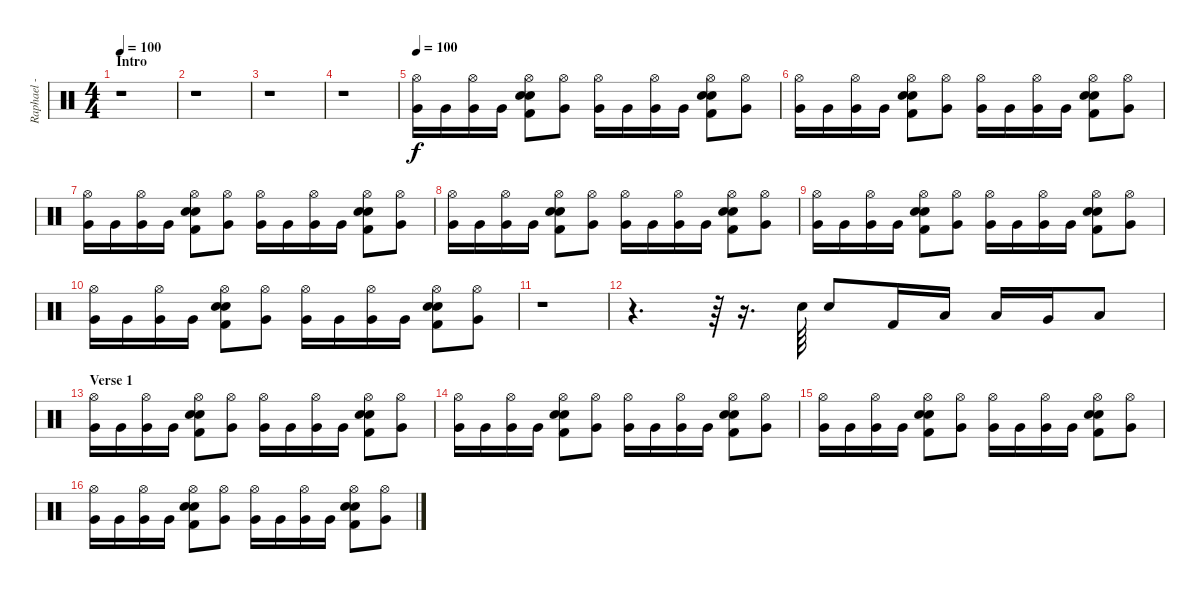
\track ("Raphael - Batterie" "Raphael - ") {instrument percussion}
\staff {score}
\articulation defaults
\ts (4 4)
\section ("" "Intro")
\tempo 100
\clef neutral
\ks c
r.1{dy f} |
r.1 |
r.1 |
r.1 |
\tempo 100
("Hi-Hat (open)" "Very Low Tom (hit)").16 "Very Low Tom (hit)".16 ("Hi-Hat (open)" "Very Low Tom (hit)").16 "Very Low Tom (hit)".16 ("Hi-Hat (open)" "Hand Clap (hit)" "Snare (hit) 2" "Kick (hit) 2").8 ("Hi-Hat (open)" "Very Low Tom (hit)").8 ("Hi-Hat (open)" "Very Low Tom (hit)").16 "Very Low Tom (hit)".16 ("Hi-Hat (open)" "Very Low Tom (hit)").16 "Very Low Tom (hit)".16 ("Hi-Hat (open)" "Hand Clap (hit)" "Snare (hit) 2" "Kick (hit) 2").8 ("Hi-Hat (open)" "Very Low Tom (hit)").8 |
("Hi-Hat (open)" "Very Low Tom (hit)").16 "Very Low Tom (hit)".16 ("Hi-Hat (open)" "Very Low Tom (hit)").16 "Very Low Tom (hit)".16 ("Hi-Hat (open)" "Hand Clap (hit)" "Snare (hit) 2" "Kick (hit) 2").8 ("Hi-Hat (open)" "Very Low Tom (hit)").8 ("Hi-Hat (open)" "Very Low Tom (hit)").16 "Very Low Tom (hit)".16 ("Hi-Hat (open)" "Very Low Tom (hit)").16 "Very Low Tom (hit)".16 ("Hi-Hat (open)" "Hand Clap (hit)" "Snare (hit) 2" "Kick (hit) 2").8 ("Hi-Hat (open)" "Very Low Tom (hit)").8 |
("Hi-Hat (open)" "Very Low Tom (hit)").16 "Very Low Tom (hit)".16 ("Hi-Hat (open)" "Very Low Tom (hit)").16 "Very Low Tom (hit)".16 ("Hi-Hat (open)" "Hand Clap (hit)" "Snare (hit) 2" "Kick (hit) 2").8 ("Hi-Hat (open)" "Very Low Tom (hit)").8 ("Hi-Hat (open)" "Very Low Tom (hit)").16 "Very Low Tom (hit)".16 ("Hi-Hat (open)" "Very Low Tom (hit)").16 "Very Low Tom (hit)".16 ("Hi-Hat (open)" "Hand Clap (hit)" "Snare (hit) 2" "Kick (hit) 2").8 ("Hi-Hat (open)" "Very Low Tom (hit)").8 |
("Hi-Hat (open)" "Very Low Tom (hit)").16 "Very Low Tom (hit)".16 ("Hi-Hat (open)" "Very Low Tom (hit)").16 "Very Low Tom (hit)".16 ("Hi-Hat (open)" "Hand Clap (hit)" "Snare (hit) 2" "Kick (hit) 2").8 ("Hi-Hat (open)" "Very Low Tom (hit)").8 ("Hi-Hat (open)" "Very Low Tom (hit)").16 "Very Low Tom (hit)".16 ("Hi-Hat (open)" "Very Low Tom (hit)").16 "Very Low Tom (hit)".16 ("Hi-Hat (open)" "Hand Clap (hit)" "Snare (hit) 2" "Kick (hit) 2").8 ("Hi-Hat (open)" "Very Low Tom (hit)").8 |
("Hi-Hat (open)" "Very Low Tom (hit)").16 "Very Low Tom (hit)".16 ("Hi-Hat (open)" "Very Low Tom (hit)").16 "Very Low Tom (hit)".16 ("Hi-Hat (open)" "Hand Clap (hit)" "Snare (hit) 2" "Kick (hit) 2").8 ("Hi-Hat (open)" "Very Low Tom (hit)").8 ("Hi-Hat (open)" "Very Low Tom (hit)").16 "Very Low Tom (hit)".16 ("Hi-Hat (open)" "Very Low Tom (hit)").16 "Very Low Tom (hit)".16 ("Hi-Hat (open)" "Hand Clap (hit)" "Snare (hit) 2" "Kick (hit) 2").8 ("Hi-Hat (open)" "Very Low Tom (hit)").8 |
("Hi-Hat (open)" "Very Low Tom (hit)").16 "Very Low Tom (hit)".16 ("Hi-Hat (open)" "Very Low Tom (hit)").16 "Very Low Tom (hit)".16 ("Hi-Hat (open)" "Hand Clap (hit)" "Snare (hit) 2" "Kick (hit) 2").8 ("Hi-Hat (open)" "Very Low Tom (hit)").8 ("Hi-Hat (open)" "Very Low Tom (hit)").16 "Very Low Tom (hit)".16 ("Hi-Hat (open)" "Very Low Tom (hit)").16 "Very Low Tom (hit)".16 ("Hi-Hat (open)" "Hand Clap (hit)" "Snare (hit) 2" "Kick (hit) 2").8 ("Hi-Hat (open)" "Very Low Tom (hit)").8 |
r.1 |
r.4{d} r.64 r.16{d} "Electric Snare (hit)".64 "Snare (hit) 2".8 "Kick (hit) 2".16 "Low Floor Tom (hit)".16 "Low Floor Tom (hit)".16 "Very Low Tom (hit)".16 "Low Tom (hit)".8 |
\section ("" "Verse 1")
("Hi-Hat (open)" "Very Low Tom (hit)").16 "Very Low Tom (hit)".16 ("Hi-Hat (open)" "Very Low Tom (hit)").16 "Very Low Tom (hit)".16 ("Hi-Hat (open)" "Hand Clap (hit)" "Snare (hit) 2" "Kick (hit) 2").8 ("Hi-Hat (open)" "Very Low Tom (hit)").8 ("Hi-Hat (open)" "Very Low Tom (hit)").16 "Very Low Tom (hit)".16 ("Hi-Hat (open)" "Very Low Tom (hit)").16 "Very Low Tom (hit)".16 ("Hi-Hat (open)" "Hand Clap (hit)" "Snare (hit) 2" "Kick (hit) 2").8 ("Hi-Hat (open)" "Very Low Tom (hit)").8 |
("Hi-Hat (open)" "Very Low Tom (hit)").16 "Very Low Tom (hit)".16 ("Hi-Hat (open)" "Very Low Tom (hit)").16 "Very Low Tom (hit)".16 ("Hi-Hat (open)" "Hand Clap (hit)" "Snare (hit) 2" "Kick (hit) 2").8 ("Hi-Hat (open)" "Very Low Tom (hit)").8 ("Hi-Hat (open)" "Very Low Tom (hit)").16 "Very Low Tom (hit)".16 ("Hi-Hat (open)" "Very Low Tom (hit)").16 "Very Low Tom (hit)".16 ("Hi-Hat (open)" "Hand Clap (hit)" "Snare (hit) 2" "Kick (hit) 2").8 ("Hi-Hat (open)" "Very Low Tom (hit)").8 |
("Hi-Hat (open)" "Very Low Tom (hit)").16 "Very Low Tom (hit)".16 ("Hi-Hat (open)" "Very Low Tom (hit)").16 "Very Low Tom (hit)".16 ("Hi-Hat (open)" "Hand Clap (hit)" "Snare (hit) 2" "Kick (hit) 2").8 ("Hi-Hat (open)" "Very Low Tom (hit)").8 ("Hi-Hat (open)" "Very Low Tom (hit)").16 "Very Low Tom (hit)".16 ("Hi-Hat (open)" "Very Low Tom (hit)").16 "Very Low Tom (hit)".16 ("Hi-Hat (open)" "Hand Clap (hit)" "Snare (hit) 2" "Kick (hit) 2").8 ("Hi-Hat (open)" "Very Low Tom (hit)").8 |
("Hi-Hat (open)" "Very Low Tom (hit)").16 "Very Low Tom (hit)".16 ("Hi-Hat (open)" "Very Low Tom (hit)").16 "Very Low Tom (hit)".16 ("Hi-Hat (open)" "Hand Clap (hit)" "Snare (hit) 2" "Kick (hit) 2").8 ("Hi-Hat (open)" "Very Low Tom (hit)").8 ("Hi-Hat (open)" "Very Low Tom (hit)").16 "Very Low Tom (hit)".16 ("Hi-Hat (open)" "Very Low Tom (hit)").16 "Very Low Tom (hit)".16 ("Hi-Hat (open)" "Hand Clap (hit)" "Snare (hit) 2" "Kick (hit) 2").8 ("Hi-Hat (open)" "Very Low Tom (hit)").8
